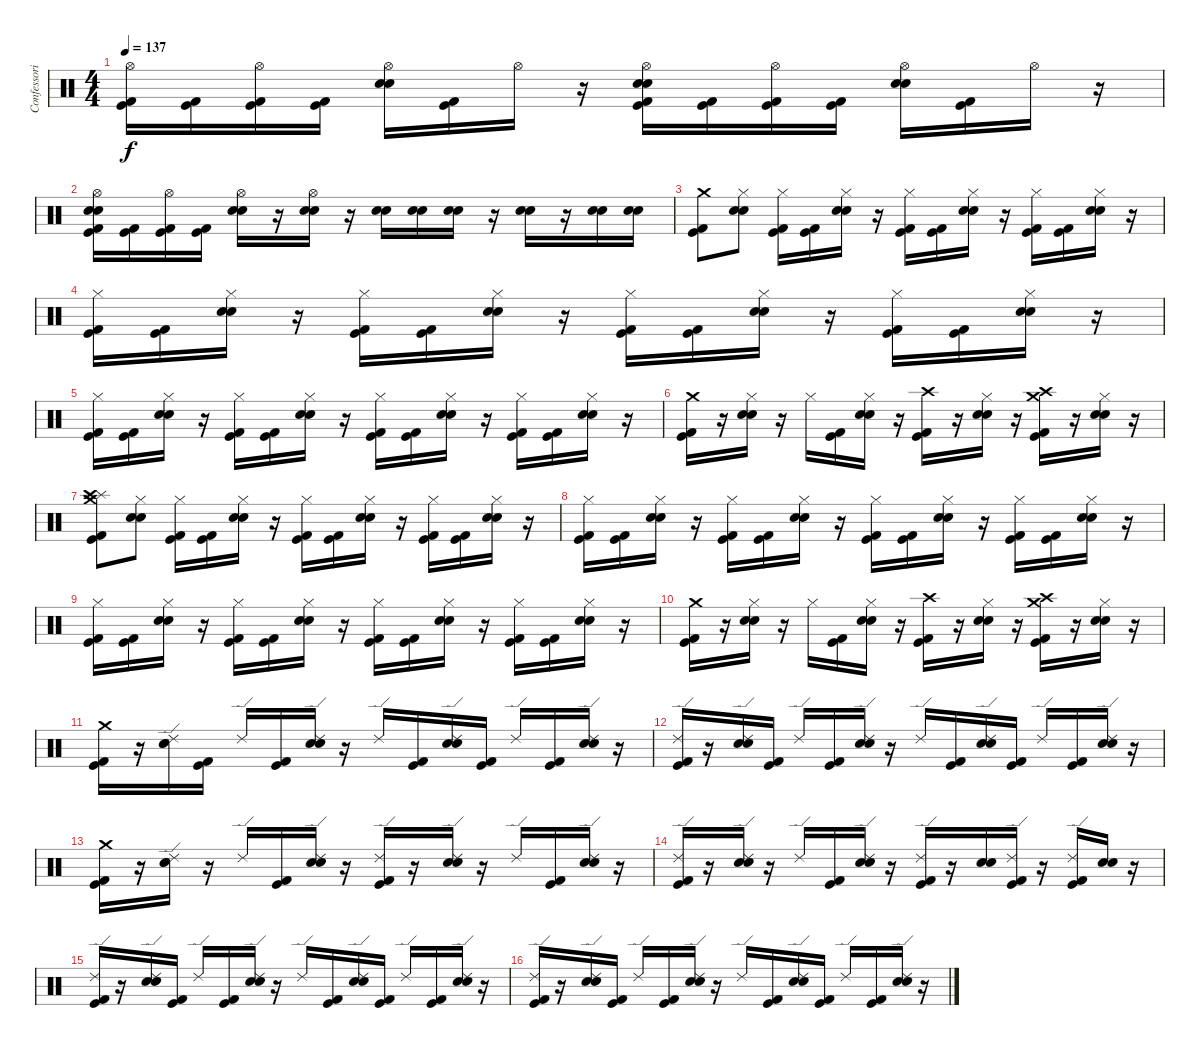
\track ("Confessori" "Confessori") {instrument percussion}
\staff {score}
\articulation defaults
\ts (4 4)
\tempo 137
\clef neutral
\ks c
("Hi-Hat (open)" "Kick (hit) 2" "Kick (hit)").16{dy f} ("Kick (hit) 2" "Kick (hit)").16 ("Hi-Hat (open)" "Kick (hit) 2" "Kick (hit)").16 ("Kick (hit) 2" "Kick (hit)").16 ("Hi-Hat (open)" "Electric Snare (hit)" "Snare (hit) 2").16 ("Kick (hit) 2" "Kick (hit)").16 "Hi-Hat (open)".16 r.16 ("Electric Snare (hit)" "Snare (hit) 2" "Kick (hit) 2" "Kick (hit)" "Hi-Hat (open)").16 ("Kick (hit) 2" "Kick (hit)").16 ("Kick (hit) 2" "Kick (hit)" "Hi-Hat (open)").16 ("Kick (hit) 2" "Kick (hit)").16 ("Electric Snare (hit)" "Snare (hit) 2" "Hi-Hat (open)").16 ("Kick (hit) 2" "Kick (hit)").16 "Hi-Hat (open)".16 r.16 |
("Electric Snare (hit)" "Snare (hit) 2" "Hi-Hat (open)" "Kick (hit) 2" "Kick (hit)").16 ("Kick (hit) 2" "Kick (hit)").16 ("Hi-Hat (open)" "Kick (hit) 2" "Kick (hit)").16 ("Kick (hit) 2" "Kick (hit)").16 ("Hi-Hat (open)" "Electric Snare (hit)" "Snare (hit) 2").16 r.16 ("Electric Snare (hit)" "Snare (hit) 2" "Hi-Hat (open)").16 r.16 ("Snare (hit) 2" "Electric Snare (hit)").16 ("Snare (hit) 2" "Electric Snare (hit)").16 ("Snare (hit) 2" "Electric Snare (hit)").16 r.16 ("Snare (hit) 2" "Electric Snare (hit)").16 r.16 ("Snare (hit) 2" "Electric Snare (hit)").16 ("Snare (hit) 2" "Electric Snare (hit)").16 |
("Crash medium (hit)" "Kick (hit) 2" "Kick (hit)").8 ("Hi-Hat (closed)" "Electric Snare (hit)" "Snare (hit) 2").8 ("Hi-Hat (closed)" "Kick (hit) 2" "Kick (hit)").16 ("Kick (hit) 2" "Kick (hit)").16 ("Hi-Hat (closed)" "Electric Snare (hit)" "Snare (hit) 2").16 r.16 ("Hi-Hat (closed)" "Kick (hit) 2" "Kick (hit)").16 ("Kick (hit) 2" "Kick (hit)").16 ("Hi-Hat (closed)" "Electric Snare (hit)" "Snare (hit) 2").16 r.16 ("Hi-Hat (closed)" "Kick (hit) 2" "Kick (hit)").16 ("Kick (hit) 2" "Kick (hit)").16 ("Hi-Hat (closed)" "Electric Snare (hit)" "Snare (hit) 2").16 r.16 |
("Hi-Hat (closed)" "Kick (hit) 2" "Kick (hit)").16 ("Kick (hit) 2" "Kick (hit)").16 ("Hi-Hat (closed)" "Electric Snare (hit)" "Snare (hit) 2").16 r.16 ("Hi-Hat (closed)" "Kick (hit) 2" "Kick (hit)").16 ("Kick (hit) 2" "Kick (hit)").16 ("Hi-Hat (closed)" "Electric Snare (hit)" "Snare (hit) 2").16 r.16 ("Hi-Hat (closed)" "Kick (hit) 2" "Kick (hit)").16 ("Kick (hit) 2" "Kick (hit)").16 ("Hi-Hat (closed)" "Electric Snare (hit)" "Snare (hit) 2").16 r.16 ("Hi-Hat (closed)" "Kick (hit) 2" "Kick (hit)").16 ("Kick (hit) 2" "Kick (hit)").16 ("Hi-Hat (closed)" "Electric Snare (hit)" "Snare (hit) 2").16 r.16 |
("Hi-Hat (closed)" "Kick (hit) 2" "Kick (hit)").16 ("Kick (hit) 2" "Kick (hit)").16 ("Hi-Hat (closed)" "Electric Snare (hit)" "Snare (hit) 2").16 r.16 ("Hi-Hat (closed)" "Kick (hit) 2" "Kick (hit)").16 ("Kick (hit) 2" "Kick (hit)").16 ("Hi-Hat (closed)" "Electric Snare (hit)" "Snare (hit) 2").16 r.16 ("Hi-Hat (closed)" "Kick (hit) 2" "Kick (hit)").16 ("Kick (hit) 2" "Kick (hit)").16 ("Hi-Hat (closed)" "Electric Snare (hit)" "Snare (hit) 2").16 r.16 ("Hi-Hat (closed)" "Kick (hit) 2" "Kick (hit)").16 ("Kick (hit) 2" "Kick (hit)").16 ("Hi-Hat (closed)" "Electric Snare (hit)" "Snare (hit) 2").16 r.16 |
("Crash medium (hit)" "Kick (hit) 2" "Kick (hit)").16 r.16 ("Hi-Hat (closed)" "Electric Snare (hit)" "Snare (hit) 2").16 r.16 "Hi-Hat (closed)".16 ("Kick (hit) 2" "Kick (hit)").16 ("Hi-Hat (closed)" "Electric Snare (hit)" "Snare (hit) 2").16 r.16 ("Crash high (hit)" "Kick (hit) 2" "Kick (hit)").16 r.16 ("Hi-Hat (closed)" "Electric Snare (hit)" "Snare (hit) 2").16 r.16 ("Crash medium (hit)" "Crash high (hit)" "Kick (hit) 2" "Kick (hit)").16 r.16 ("Hi-Hat (closed)" "Electric Snare (hit)" "Snare (hit) 2").16 r.16 |
("Splash (hit)" "Crash high (hit)" "Crash medium (hit)" "Kick (hit) 2" "Kick (hit)").8 ("Hi-Hat (closed)" "Electric Snare (hit)" "Snare (hit) 2").8 ("Hi-Hat (closed)" "Kick (hit) 2" "Kick (hit)").16 ("Kick (hit) 2" "Kick (hit)").16 ("Hi-Hat (closed)" "Electric Snare (hit)" "Snare (hit) 2").16 r.16 ("Hi-Hat (closed)" "Kick (hit) 2" "Kick (hit)").16 ("Kick (hit) 2" "Kick (hit)").16 ("Hi-Hat (closed)" "Electric Snare (hit)" "Snare (hit) 2").16 r.16 ("Hi-Hat (closed)" "Kick (hit) 2" "Kick (hit)").16 ("Kick (hit) 2" "Kick (hit)").16 ("Hi-Hat (closed)" "Electric Snare (hit)" "Snare (hit) 2").16 r.16 |
("Hi-Hat (closed)" "Kick (hit) 2" "Kick (hit)").16 ("Kick (hit) 2" "Kick (hit)").16 ("Hi-Hat (closed)" "Electric Snare (hit)" "Snare (hit) 2").16 r.16 ("Hi-Hat (closed)" "Kick (hit) 2" "Kick (hit)").16 ("Kick (hit) 2" "Kick (hit)").16 ("Hi-Hat (closed)" "Electric Snare (hit)" "Snare (hit) 2").16 r.16 ("Hi-Hat (closed)" "Kick (hit) 2" "Kick (hit)").16 ("Kick (hit) 2" "Kick (hit)").16 ("Hi-Hat (closed)" "Electric Snare (hit)" "Snare (hit) 2").16 r.16 ("Hi-Hat (closed)" "Kick (hit) 2" "Kick (hit)").16 ("Kick (hit) 2" "Kick (hit)").16 ("Hi-Hat (closed)" "Electric Snare (hit)" "Snare (hit) 2").16 r.16 |
("Hi-Hat (closed)" "Kick (hit) 2" "Kick (hit)").16 ("Kick (hit) 2" "Kick (hit)").16 ("Hi-Hat (closed)" "Electric Snare (hit)" "Snare (hit) 2").16 r.16 ("Hi-Hat (closed)" "Kick (hit) 2" "Kick (hit)").16 ("Kick (hit) 2" "Kick (hit)").16 ("Hi-Hat (closed)" "Electric Snare (hit)" "Snare (hit) 2").16 r.16 ("Hi-Hat (closed)" "Kick (hit) 2" "Kick (hit)").16 ("Kick (hit) 2" "Kick (hit)").16 ("Hi-Hat (closed)" "Electric Snare (hit)" "Snare (hit) 2").16 r.16 ("Hi-Hat (closed)" "Kick (hit) 2" "Kick (hit)").16 ("Kick (hit) 2" "Kick (hit)").16 ("Hi-Hat (closed)" "Electric Snare (hit)" "Snare (hit) 2").16 r.16 |
("Crash medium (hit)" "Kick (hit) 2" "Kick (hit)").16 r.16 ("Hi-Hat (closed)" "Electric Snare (hit)" "Snare (hit) 2").16 r.16 "Hi-Hat (closed)".16 ("Kick (hit) 2" "Kick (hit)").16 ("Hi-Hat (closed)" "Electric Snare (hit)" "Snare (hit) 2").16 r.16 ("Crash high (hit)" "Kick (hit) 2" "Kick (hit)").16 r.16 ("Hi-Hat (closed)" "Electric Snare (hit)" "Snare (hit) 2").16 r.16 ("Crash high (hit)" "Kick (hit) 2" "Kick (hit)" "Crash medium (hit)").16 r.16 ("Hi-Hat (closed)" "Electric Snare (hit)" "Snare (hit) 2").16 r.16 |
("Crash medium (hit)" "Kick (hit) 2" "Kick (hit)").16 r.16 ("Ride (edge) 2" "Electric Snare (hit)" "Snare (hit) 2").16 ("Kick (hit) 2" "Kick (hit)").16 "Ride (edge) 2".16 ("Kick (hit) 2" "Kick (hit)").16 ("Ride (edge) 2" "Electric Snare (hit)" "Snare (hit) 2").16 r.16 "Ride (edge) 2".16 ("Kick (hit) 2" "Kick (hit)").16 ("Snare (hit) 2" "Electric Snare (hit)" "Ride (edge) 2").16 ("Kick (hit) 2" "Kick (hit)").16 "Ride (edge) 2".16 ("Kick (hit) 2" "Kick (hit)").16 ("Ride (edge) 2" "Electric Snare (hit)" "Snare (hit) 2").16 r.16 |
("Ride (edge) 2" "Kick (hit) 2" "Kick (hit)").16 r.16 ("Electric Snare (hit)" "Snare (hit) 2" "Ride (edge) 2").16 ("Kick (hit) 2" "Kick (hit)").16 "Ride (edge) 2".16 ("Kick (hit) 2" "Kick (hit)").16 ("Electric Snare (hit)" "Snare (hit) 2" "Ride (edge) 2").16 r.16 "Ride (edge) 2".16 ("Kick (hit) 2" "Kick (hit)").16 ("Snare (hit) 2" "Electric Snare (hit)" "Ride (edge) 2").16 ("Kick (hit)" "Kick (hit) 2").16 "Ride (edge) 2".16 ("Kick (hit) 2" "Kick (hit)").16 ("Electric Snare (hit)" "Snare (hit) 2" "Ride (edge) 2").16 r.16 |
("Crash medium (hit)" "Kick (hit) 2" "Kick (hit)").16 r.16 ("Electric Snare (hit)" "Snare (hit) 2" "Ride (edge) 2").16 r.16 "Ride (edge) 2".16 ("Kick (hit) 2" "Kick (hit)").16 ("Electric Snare (hit)" "Snare (hit) 2" "Ride (edge) 2").16 r.16 ("Ride (edge) 2" "Kick (hit) 2" "Kick (hit)").16 r.16 ("Electric Snare (hit)" "Snare (hit) 2" "Ride (edge) 2").16 r.16 "Ride (edge) 2".16 ("Kick (hit) 2" "Kick (hit)").16 ("Electric Snare (hit)" "Snare (hit) 2" "Ride (edge) 2").16 r.16 |
("Kick (hit) 2" "Ride (edge) 2" "Kick (hit)").16 r.16 ("Electric Snare (hit)" "Snare (hit) 2" "Ride (edge) 2").16 r.16 "Ride (edge) 2".16 ("Kick (hit) 2" "Kick (hit)").16 ("Electric Snare (hit)" "Snare (hit) 2" "Ride (edge) 2").16 r.16 ("Ride (edge) 2" "Kick (hit) 2" "Kick (hit)").16 r.16 ("Electric Snare (hit)" "Snare (hit) 2").16 ("Ride (edge) 2" "Kick (hit) 2" "Kick (hit)").16 r.16 ("Ride (edge) 2" "Kick (hit) 2" "Kick (hit)").16 ("Electric Snare (hit)" "Snare (hit) 2").16 r.16 |
("Ride (edge) 2" "Kick (hit) 2" "Kick (hit)").16 r.16 ("Electric Snare (hit)" "Snare (hit) 2" "Ride (edge) 2").16 ("Kick (hit) 2" "Kick (hit)").16 "Ride (edge) 2".16 ("Kick (hit) 2" "Kick (hit)").16 ("Electric Snare (hit)" "Snare (hit) 2" "Ride (edge) 2").16 r.16 "Ride (edge) 2".16 ("Kick (hit) 2" "Kick (hit)").16 ("Electric Snare (hit)" "Snare (hit) 2" "Ride (edge) 2").16 ("Kick (hit) 2" "Kick (hit)").16 "Ride (edge) 2".16 ("Kick (hit) 2" "Kick (hit)").16 ("Electric Snare (hit)" "Snare (hit) 2" "Ride (edge) 2").16 r.16 |
("Ride (edge) 2" "Kick (hit) 2" "Kick (hit)").16 r.16 ("Electric Snare (hit)" "Snare (hit) 2" "Ride (edge) 2").16 ("Kick (hit) 2" "Kick (hit)").16 "Ride (edge) 2".16 ("Kick (hit) 2" "Kick (hit)").16 ("Electric Snare (hit)" "Snare (hit) 2" "Ride (edge) 2").16 r.16 "Ride (edge) 2".16 ("Kick (hit) 2" "Kick (hit)").16 ("Electric Snare (hit)" "Snare (hit) 2" "Ride (edge) 2").16 ("Kick (hit) 2" "Kick (hit)").16 "Ride (edge) 2".16 ("Kick (hit) 2" "Kick (hit)").16 ("Electric Snare (hit)" "Snare (hit) 2" "Ride (edge) 2").16 r.16
